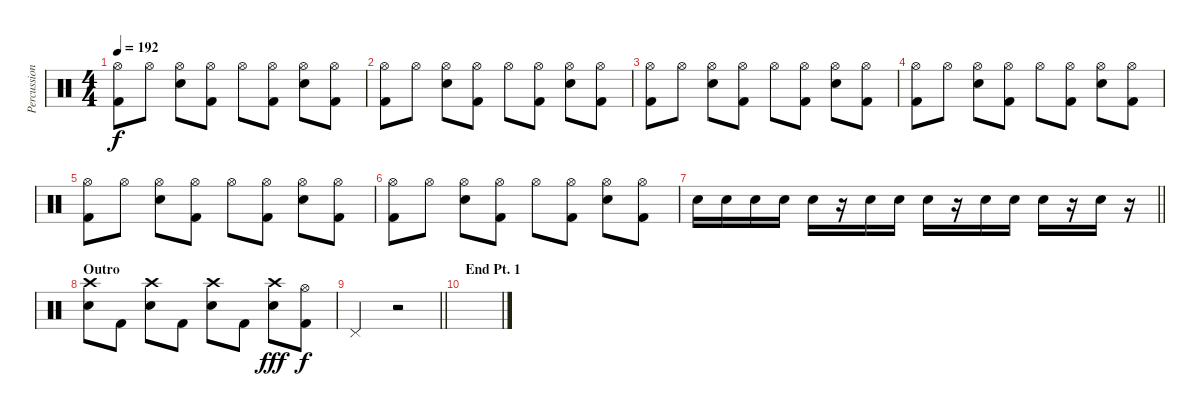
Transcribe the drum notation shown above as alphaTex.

\track ("Percussion" "Percussion") {instrument percussion}
\staff {score}
\articulation defaults
\ts (4 4)
\tempo 192
\clef neutral
\ks c
("Hi-Hat (open)" "Kick (hit) 2").8{dy f} "Hi-Hat (open)".8 ("Hi-Hat (open)" "Electric Snare (hit)").8 ("Hi-Hat (open)" "Kick (hit) 2").8 "Hi-Hat (open)".8 ("Hi-Hat (open)" "Kick (hit) 2").8 ("Hi-Hat (open)" "Electric Snare (hit)").8 ("Hi-Hat (open)" "Kick (hit) 2").8 |
("Hi-Hat (open)" "Kick (hit) 2").8 "Hi-Hat (open)".8 ("Hi-Hat (open)" "Electric Snare (hit)").8 ("Hi-Hat (open)" "Kick (hit) 2").8 "Hi-Hat (open)".8 ("Hi-Hat (open)" "Kick (hit) 2").8 ("Hi-Hat (open)" "Electric Snare (hit)").8 ("Hi-Hat (open)" "Kick (hit) 2").8 |
("Hi-Hat (open)" "Kick (hit) 2").8 "Hi-Hat (open)".8 ("Hi-Hat (open)" "Electric Snare (hit)").8 ("Hi-Hat (open)" "Kick (hit) 2").8 "Hi-Hat (open)".8 ("Hi-Hat (open)" "Kick (hit) 2").8 ("Hi-Hat (open)" "Electric Snare (hit)").8 ("Hi-Hat (open)" "Kick (hit) 2").8 |
("Hi-Hat (open)" "Kick (hit) 2").8 "Hi-Hat (open)".8 ("Hi-Hat (open)" "Electric Snare (hit)").8 ("Hi-Hat (open)" "Kick (hit) 2").8 "Hi-Hat (open)".8 ("Hi-Hat (open)" "Kick (hit) 2").8 ("Hi-Hat (open)" "Electric Snare (hit)").8 ("Hi-Hat (open)" "Kick (hit) 2").8 |
("Hi-Hat (open)" "Kick (hit) 2").8 "Hi-Hat (open)".8 ("Hi-Hat (open)" "Electric Snare (hit)").8 ("Hi-Hat (open)" "Kick (hit) 2").8 "Hi-Hat (open)".8 ("Hi-Hat (open)" "Kick (hit) 2").8 ("Hi-Hat (open)" "Electric Snare (hit)").8 ("Hi-Hat (open)" "Kick (hit) 2").8 |
("Hi-Hat (open)" "Kick (hit) 2").8 "Hi-Hat (open)".8 ("Hi-Hat (open)" "Electric Snare (hit)").8 ("Hi-Hat (open)" "Kick (hit) 2").8 "Hi-Hat (open)".8 ("Hi-Hat (open)" "Kick (hit) 2").8 ("Hi-Hat (open)" "Electric Snare (hit)").8 ("Hi-Hat (open)" "Kick (hit) 2").8 |
\barLineRight lightlight "Electric Snare (hit)".16 "Electric Snare (hit)".16 "Electric Snare (hit)".16 "Electric Snare (hit)".16 "Electric Snare (hit)".16
r.16 "Electric Snare (hit)".16 "Electric Snare (hit)".16 "Electric Snare (hit)".16 r.16 "Electric Snare (hit)".16 "Electric Snare (hit)".16 "Electric Snare (hit)".16 r.16 "Electric Snare (hit)".16 r.16 |
\section ("" "Outro")
("Crash high (hit)" "Electric Snare (hit)").8 "Kick (hit) 2".8 ("Crash high (hit)" "Electric Snare (hit)").8 "Kick (hit) 2".8 ("Crash high (hit)" "Electric Snare (hit)").8 "Kick (hit) 2".8 ("Crash high (hit)" "Electric Snare (hit)").8{dy fff} ("Hi-Hat (open)" "Kick (hit) 2").8{dy f} |
\barLineRight lightlight "Pedal Hi-Hat (hit)".2
r.2 |
\section ("" "End Pt. 1")
